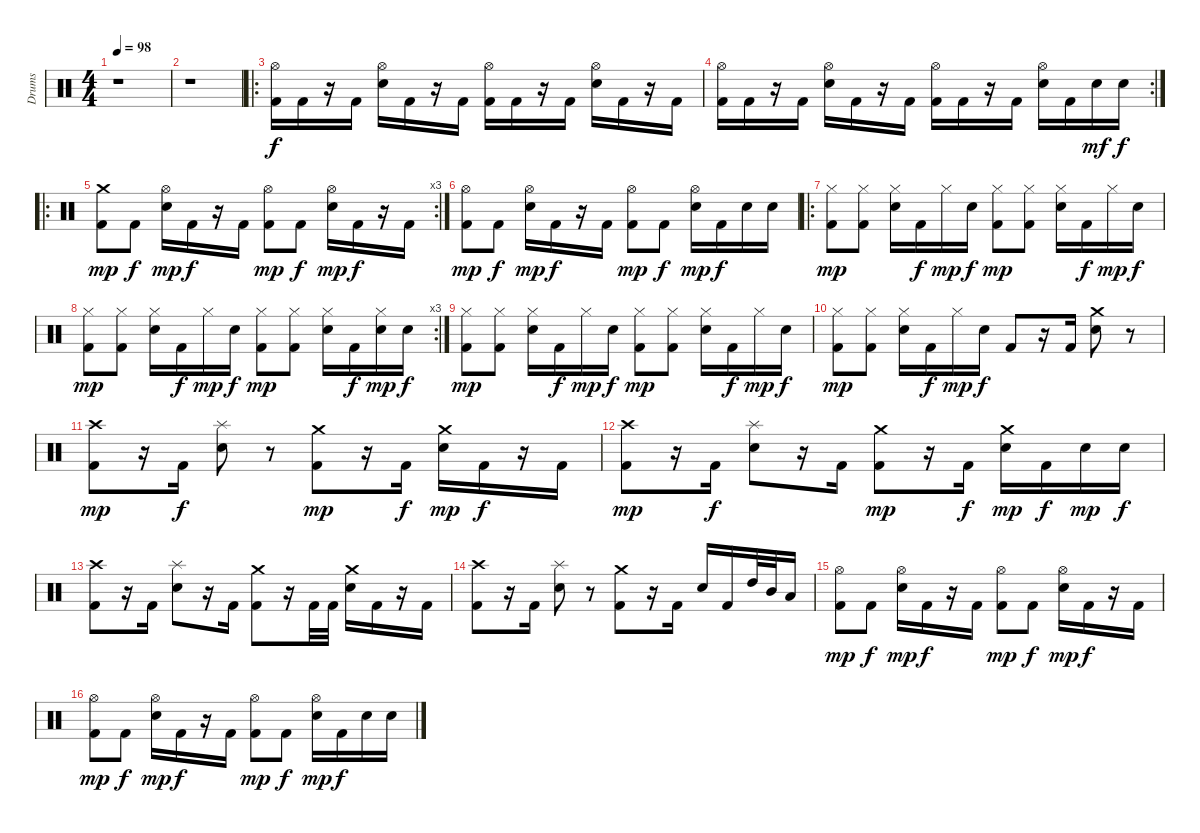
\track ("Drums" "Drums") {instrument percussion}
\staff {score}
\articulation defaults
\ts (4 4)
\tempo 98
\clef neutral
\ks c
r.1{dy f} |
r.1 |
\ro
("Hi-Hat (open)" "Kick (hit) 2").16 "Kick (hit) 2".16 r.16 "Kick (hit) 2".16 ("Hi-Hat (open)" "Snare (hit) 2").16 "Kick (hit) 2".16 r.16 "Kick (hit) 2".16 ("Hi-Hat (open)" "Kick (hit) 2").16 "Kick (hit) 2".16 r.16 "Kick (hit) 2".16 ("Hi-Hat (open)" "Snare (hit) 2").16 "Kick (hit) 2".16 r.16 "Kick (hit) 2".16 |
\rc 2
("Hi-Hat (open)" "Kick (hit) 2").16 "Kick (hit) 2".16 r.16 "Kick (hit) 2".16 ("Hi-Hat (open)" "Snare (hit) 2").16 "Kick (hit) 2".16 r.16 "Kick (hit) 2".16 ("Hi-Hat (open)" "Kick (hit) 2").16 "Kick (hit) 2".16 r.16 "Kick (hit) 2".16 ("Hi-Hat (open)" "Snare (hit) 2").16 "Kick (hit) 2".16 "Snare (hit) 2".16{dy mf} "Snare (hit) 2".16{dy f} |
\ro
\rc 3
("Crash medium (hit)" "Kick (hit) 2").8{dy mp} "Kick (hit) 2".8{dy f} ("Hi-Hat (open)" "Snare (hit) 2").16{dy mp} "Kick (hit) 2".16{dy f} r.16 "Kick (hit) 2".16 ("Hi-Hat (open)" "Kick (hit) 2").8{dy mp} "Kick (hit) 2".8{dy f} ("Hi-Hat (open)" "Snare (hit) 2").16{dy mp} "Kick (hit) 2".16{dy f} r.16 "Kick (hit) 2".16 |
("Hi-Hat (open)" "Kick (hit) 2").8{dy mp} "Kick (hit) 2".8{dy f} ("Hi-Hat (open)" "Snare (hit) 2").16{dy mp} "Kick (hit) 2".16{dy f} r.16 "Kick (hit) 2".16 ("Hi-Hat (open)" "Kick (hit) 2").8{dy mp} "Kick (hit) 2".8{dy f} ("Hi-Hat (open)" "Snare (hit) 2").16{dy mp} "Kick (hit) 2".16{dy f} "Snare (hit) 2".16 "Snare (hit) 2".16 |
\ro
("Hi-Hat (closed)" "Kick (hit) 2").8{dy mp} ("Hi-Hat (closed)" "Kick (hit) 2").8 ("Hi-Hat (closed)" "Snare (hit) 2").16 "Kick (hit) 2".16{dy f} "Hi-Hat (closed)".16{dy mp} "Snare (hit) 2".16{dy f} ("Hi-Hat (closed)" "Kick (hit) 2").8{dy mp} ("Hi-Hat (closed)" "Kick (hit) 2").8 ("Hi-Hat (closed)" "Snare (hit) 2").16 "Kick (hit) 2".16{dy f} "Hi-Hat (closed)".16{dy mp} "Snare (hit) 2".16{dy f} |
\rc 3
("Hi-Hat (closed)" "Kick (hit) 2").8{dy mp} ("Hi-Hat (closed)" "Kick (hit) 2").8 ("Hi-Hat (closed)" "Snare (hit) 2").16 "Kick (hit) 2".16{dy f} "Hi-Hat (closed)".16{dy mp} "Snare (hit) 2".16{dy f} ("Hi-Hat (closed)" "Kick (hit) 2").8{dy mp} ("Hi-Hat (closed)" "Kick (hit) 2").8 ("Hi-Hat (closed)" "Snare (hit) 2").16 "Kick (hit) 2".16{dy f} ("Hi-Hat (closed)" "Snare (hit) 2").16{dy mp} "Snare (hit) 2".16{dy f} |
("Hi-Hat (closed)" "Kick (hit) 2").8{dy mp} ("Hi-Hat (closed)" "Kick (hit) 2").8 ("Hi-Hat (closed)" "Snare (hit) 2").16 "Kick (hit) 2".16{dy f} "Hi-Hat (closed)".16{dy mp} "Snare (hit) 2".16{dy f} ("Hi-Hat (closed)" "Kick (hit) 2").8{dy mp} ("Hi-Hat (closed)" "Kick (hit) 2").8 ("Hi-Hat (closed)" "Snare (hit) 2").16 "Kick (hit) 2".16{dy f} "Hi-Hat (closed)".16{dy mp} "Snare (hit) 2".16{dy f} |
("Hi-Hat (closed)" "Kick (hit) 2").8{dy mp} ("Hi-Hat (closed)" "Kick (hit) 2").8 ("Hi-Hat (closed)" "Snare (hit) 2").16 "Kick (hit) 2".16{dy f} "Hi-Hat (closed)".16{dy mp} "Snare (hit) 2".16{dy f} "Kick (hit) 2".8 r.16 "Kick (hit) 2".16 ("Crash medium (hit)" "Snare (hit) 2").8 r.8 |
("Crash high (hit)" "Kick (hit) 2").8{dy mp} r.16 "Kick (hit) 2".16{dy f} ("Splash (hit)" "Snare (hit) 2").8 r.8 ("Crash medium (hit)" "Kick (hit) 2").8{dy mp} r.16 "Kick (hit) 2".16{dy f} ("Crash medium (hit)" "Snare (hit) 2").16{dy mp} "Kick (hit) 2".16{dy f} r.16 "Kick (hit) 2".16 |
("Crash high (hit)" "Kick (hit) 2").8{dy mp} r.16 "Kick (hit) 2".16{dy f} ("Splash (hit)" "Snare (hit) 2").8 r.16 "Kick (hit) 2".16 ("Crash medium (hit)" "Kick (hit) 2").8{dy mp} r.16 "Kick (hit) 2".16{dy f} ("Crash medium (hit)" "Snare (hit) 2").16{dy mp} "Kick (hit) 2".16{dy f} "Snare (hit) 2".16{dy mp} "Snare (hit) 2".16{dy f} |
("Crash high (hit)" "Kick (hit) 2").8 r.16 "Kick (hit) 2".16 ("Splash (hit)" "Snare (hit) 2").8 r.16 "Kick (hit) 2".16 ("Crash medium (hit)" "Kick (hit) 2").8 r.16 "Kick (hit) 2".32 "Kick (hit) 2".32 ("Crash medium (hit)" "Snare (hit) 2").16 "Kick (hit) 2".16 r.16 "Kick (hit) 2".16 |
("Crash high (hit)" "Kick (hit) 2").8 r.16 "Kick (hit) 2".16 ("Splash (hit)" "Snare (hit) 2").8 r.8 ("Crash medium (hit)" "Kick (hit) 2").8 r.16 "Kick (hit) 2".16 "Snare (hit) 2".16 "Kick (hit) 2".16 "High Tom (hit)".32 "Mid Tom (hit)".32 "Low Tom (hit)".16 |
("Hi-Hat (open)" "Kick (hit) 2").8{dy mp} "Kick (hit) 2".8{dy f} ("Hi-Hat (open)" "Snare (hit) 2").16{dy mp} "Kick (hit) 2".16{dy f} r.16 "Kick (hit) 2".16 ("Hi-Hat (open)" "Kick (hit) 2").8{dy mp} "Kick (hit) 2".8{dy f} ("Hi-Hat (open)" "Snare (hit) 2").16{dy mp} "Kick (hit) 2".16{dy f} r.16 "Kick (hit) 2".16 |
("Hi-Hat (open)" "Kick (hit) 2").8{dy mp} "Kick (hit) 2".8{dy f} ("Hi-Hat (open)" "Snare (hit) 2").16{dy mp} "Kick (hit) 2".16{dy f} r.16 "Kick (hit) 2".16 ("Hi-Hat (open)" "Kick (hit) 2").8{dy mp} "Kick (hit) 2".8{dy f} ("Hi-Hat (open)" "Snare (hit) 2").16{dy mp} "Kick (hit) 2".16{dy f} "Snare (hit) 2".16 "Snare (hit) 2".16
